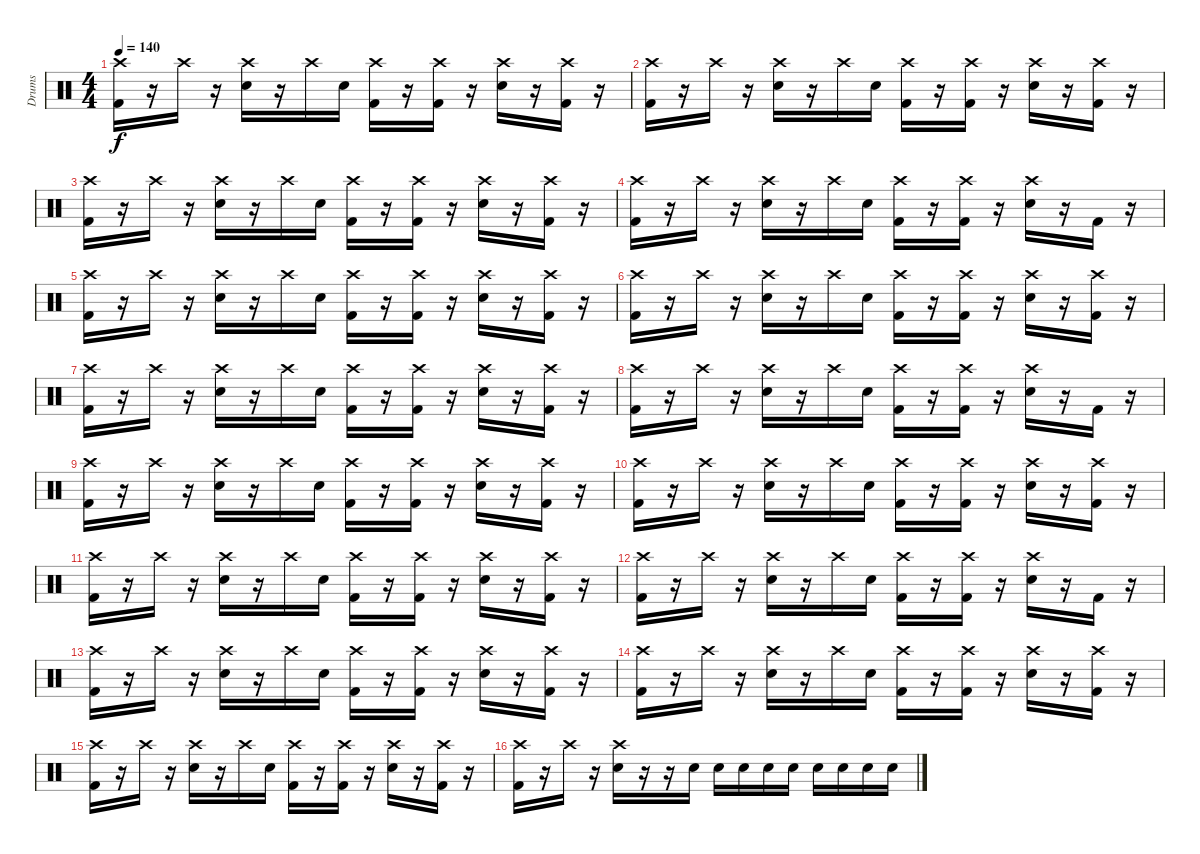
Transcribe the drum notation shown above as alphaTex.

\track ("Drums" "Drums") {instrument percussion}
\staff {score}
\articulation defaults
\ts (4 4)
\tempo 140
\clef neutral
\ks c
("Crash high (hit)" "Kick (hit) 2").16{dy f} r.16 "Crash high (hit)".16 r.16 ("Crash high (hit)" "Electric Snare (hit)").16 r.16 "Crash high (hit)".16 "Electric Snare (hit)".16 ("Crash high (hit)" "Kick (hit) 2").16 r.16 ("Crash high (hit)" "Kick (hit) 2").16 r.16 ("Crash high (hit)" "Electric Snare (hit)").16 r.16 ("Crash high (hit)" "Kick (hit) 2").16 r.16 |
("Crash high (hit)" "Kick (hit) 2").16 r.16 "Crash high (hit)".16 r.16 ("Crash high (hit)" "Electric Snare (hit)").16 r.16 "Crash high (hit)".16 "Electric Snare (hit)".16 ("Crash high (hit)" "Kick (hit) 2").16 r.16 ("Crash high (hit)" "Kick (hit) 2").16 r.16 ("Crash high (hit)" "Electric Snare (hit)").16 r.16 ("Crash high (hit)" "Kick (hit) 2").16 r.16 |
("Crash high (hit)" "Kick (hit) 2").16 r.16 "Crash high (hit)".16 r.16 ("Crash high (hit)" "Electric Snare (hit)").16 r.16 "Crash high (hit)".16 "Electric Snare (hit)".16 ("Crash high (hit)" "Kick (hit) 2").16 r.16 ("Crash high (hit)" "Kick (hit) 2").16 r.16 ("Crash high (hit)" "Electric Snare (hit)").16 r.16 ("Crash high (hit)" "Kick (hit) 2").16 r.16 |
("Crash high (hit)" "Kick (hit) 2").16 r.16 "Crash high (hit)".16 r.16 ("Crash high (hit)" "Electric Snare (hit)").16 r.16 "Crash high (hit)".16 "Electric Snare (hit)".16 ("Crash high (hit)" "Kick (hit) 2").16 r.16 ("Crash high (hit)" "Kick (hit) 2").16 r.16 ("Crash high (hit)" "Electric Snare (hit)").16 r.16 "Kick (hit) 2".16 r.16 |
("Crash high (hit)" "Kick (hit) 2").16 r.16 "Crash high (hit)".16 r.16 ("Crash high (hit)" "Electric Snare (hit)").16 r.16 "Crash high (hit)".16 "Electric Snare (hit)".16 ("Crash high (hit)" "Kick (hit) 2").16 r.16 ("Crash high (hit)" "Kick (hit) 2").16 r.16 ("Crash high (hit)" "Electric Snare (hit)").16 r.16 ("Crash high (hit)" "Kick (hit) 2").16 r.16 |
("Crash high (hit)" "Kick (hit) 2").16 r.16 "Crash high (hit)".16 r.16 ("Crash high (hit)" "Electric Snare (hit)").16 r.16 "Crash high (hit)".16 "Electric Snare (hit)".16 ("Crash high (hit)" "Kick (hit) 2").16 r.16 ("Crash high (hit)" "Kick (hit) 2").16 r.16 ("Crash high (hit)" "Electric Snare (hit)").16 r.16 ("Crash high (hit)" "Kick (hit) 2").16 r.16 |
("Crash high (hit)" "Kick (hit) 2").16 r.16 "Crash high (hit)".16 r.16 ("Crash high (hit)" "Electric Snare (hit)").16 r.16 "Crash high (hit)".16 "Electric Snare (hit)".16 ("Crash high (hit)" "Kick (hit) 2").16 r.16 ("Crash high (hit)" "Kick (hit) 2").16 r.16 ("Crash high (hit)" "Electric Snare (hit)").16 r.16 ("Crash high (hit)" "Kick (hit) 2").16 r.16 |
("Crash high (hit)" "Kick (hit) 2").16 r.16 "Crash high (hit)".16 r.16 ("Crash high (hit)" "Electric Snare (hit)").16 r.16 "Crash high (hit)".16 "Electric Snare (hit)".16 ("Crash high (hit)" "Kick (hit) 2").16 r.16 ("Crash high (hit)" "Kick (hit) 2").16 r.16 ("Crash high (hit)" "Electric Snare (hit)").16 r.16 "Kick (hit) 2".16 r.16 |
("Crash high (hit)" "Kick (hit) 2").16 r.16 "Crash high (hit)".16 r.16 ("Crash high (hit)" "Electric Snare (hit)").16 r.16 "Crash high (hit)".16 "Electric Snare (hit)".16 ("Crash high (hit)" "Kick (hit) 2").16 r.16 ("Crash high (hit)" "Kick (hit) 2").16 r.16 ("Crash high (hit)" "Electric Snare (hit)").16 r.16 ("Crash high (hit)" "Kick (hit) 2").16 r.16 |
("Crash high (hit)" "Kick (hit) 2").16 r.16 "Crash high (hit)".16 r.16 ("Crash high (hit)" "Electric Snare (hit)").16 r.16 "Crash high (hit)".16 "Electric Snare (hit)".16 ("Crash high (hit)" "Kick (hit) 2").16 r.16 ("Crash high (hit)" "Kick (hit) 2").16 r.16 ("Crash high (hit)" "Electric Snare (hit)").16 r.16 ("Crash high (hit)" "Kick (hit) 2").16 r.16 |
("Crash high (hit)" "Kick (hit) 2").16 r.16 "Crash high (hit)".16 r.16 ("Crash high (hit)" "Electric Snare (hit)").16 r.16 "Crash high (hit)".16 "Electric Snare (hit)".16 ("Crash high (hit)" "Kick (hit) 2").16 r.16 ("Crash high (hit)" "Kick (hit) 2").16 r.16 ("Crash high (hit)" "Electric Snare (hit)").16 r.16 ("Crash high (hit)" "Kick (hit) 2").16 r.16 |
("Crash high (hit)" "Kick (hit) 2").16 r.16 "Crash high (hit)".16 r.16 ("Crash high (hit)" "Electric Snare (hit)").16 r.16 "Crash high (hit)".16 "Electric Snare (hit)".16 ("Crash high (hit)" "Kick (hit) 2").16 r.16 ("Crash high (hit)" "Kick (hit) 2").16 r.16 ("Crash high (hit)" "Electric Snare (hit)").16 r.16 "Kick (hit) 2".16 r.16 |
("Crash high (hit)" "Kick (hit) 2").16 r.16 "Crash high (hit)".16 r.16 ("Crash high (hit)" "Electric Snare (hit)").16 r.16 "Crash high (hit)".16 "Electric Snare (hit)".16 ("Crash high (hit)" "Kick (hit) 2").16 r.16 ("Crash high (hit)" "Kick (hit) 2").16 r.16 ("Crash high (hit)" "Electric Snare (hit)").16 r.16 ("Crash high (hit)" "Kick (hit) 2").16 r.16 |
("Crash high (hit)" "Kick (hit) 2").16 r.16 "Crash high (hit)".16 r.16 ("Crash high (hit)" "Electric Snare (hit)").16 r.16 "Crash high (hit)".16 "Electric Snare (hit)".16 ("Crash high (hit)" "Kick (hit) 2").16 r.16 ("Crash high (hit)" "Kick (hit) 2").16 r.16 ("Crash high (hit)" "Electric Snare (hit)").16 r.16 ("Crash high (hit)" "Kick (hit) 2").16 r.16 |
("Crash high (hit)" "Kick (hit) 2").16 r.16 "Crash high (hit)".16 r.16 ("Crash high (hit)" "Electric Snare (hit)").16 r.16 "Crash high (hit)".16 "Electric Snare (hit)".16 ("Crash high (hit)" "Kick (hit) 2").16 r.16 ("Crash high (hit)" "Kick (hit) 2").16 r.16 ("Crash high (hit)" "Electric Snare (hit)").16 r.16 ("Crash high (hit)" "Kick (hit) 2").16 r.16 |
("Crash high (hit)" "Kick (hit) 2").16 r.16 "Crash high (hit)".16 r.16 ("Crash high (hit)" "Electric Snare (hit)").16 r.16 r.16 "Electric Snare (hit)".16 "Electric Snare (hit)".16 "Electric Snare (hit)".16 "Electric Snare (hit)".16 "Electric Snare (hit)".16 "Electric Snare (hit)".16 "Electric Snare (hit)".16 "Electric Snare (hit)".16 "Electric Snare (hit)".16
